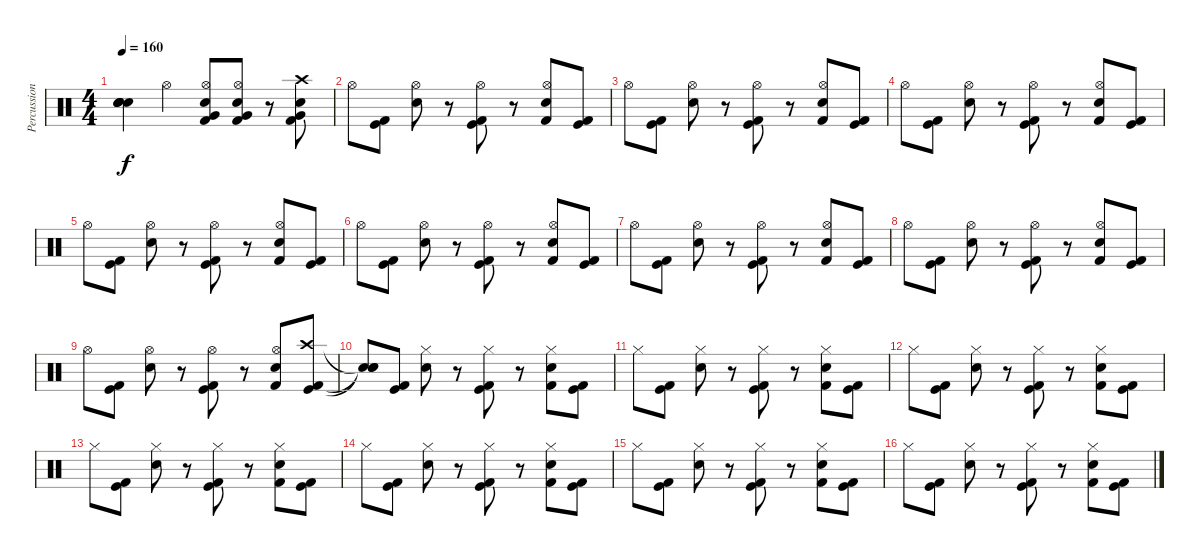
\track ("Percussions" "Percussion") {instrument percussion}
\staff {score}
\articulation defaults
\ts (4 4)
\tempo 160
\clef neutral
\ks c
("Snare (hit)"{t} "Snare (hit)"{t} "Snare (hit)"{t} "Snare (hit)"{t}).4{dy f} "Hi-Hat (open)".4 ("Hi-Hat (open)" "Snare (hit) 2" "Very Low Tom (hit)" "Kick (hit) 2").8 ("Hi-Hat (open)" "Snare (hit) 2" "Very Low Tom (hit)" "Kick (hit) 2").8 r.8 ("Crash high (hit)" "Snare (hit) 2" "Very Low Tom (hit)" "Kick (hit) 2").8 |
"Hi-Hat (open)".8 ("Kick (hit) 2" "Kick (hit)").8 ("Snare (hit) 2" "Hi-Hat (open)").8 r.8 ("Kick (hit) 2" "Kick (hit)" "Hi-Hat (open)").8 r.8 ("Kick (hit) 2" "Snare (hit) 2" "Hi-Hat (open)").8 ("Kick (hit) 2" "Kick (hit)").8 |
"Hi-Hat (open)".8 ("Kick (hit) 2" "Kick (hit)").8 ("Snare (hit) 2" "Hi-Hat (open)").8 r.8 ("Kick (hit) 2" "Kick (hit)" "Hi-Hat (open)").8 r.8 ("Kick (hit) 2" "Snare (hit) 2" "Hi-Hat (open)").8 ("Kick (hit) 2" "Kick (hit)").8 |
"Hi-Hat (open)".8 ("Kick (hit) 2" "Kick (hit)").8 ("Snare (hit) 2" "Hi-Hat (open)").8 r.8 ("Kick (hit) 2" "Kick (hit)" "Hi-Hat (open)").8 r.8 ("Kick (hit) 2" "Snare (hit) 2" "Hi-Hat (open)").8 ("Kick (hit) 2" "Kick (hit)").8 |
"Hi-Hat (open)".8 ("Kick (hit) 2" "Kick (hit)").8 ("Snare (hit) 2" "Hi-Hat (open)").8 r.8 ("Kick (hit) 2" "Kick (hit)" "Hi-Hat (open)").8 r.8 ("Kick (hit) 2" "Snare (hit) 2" "Hi-Hat (open)").8 ("Kick (hit) 2" "Kick (hit)").8 |
"Hi-Hat (open)".8 ("Kick (hit) 2" "Kick (hit)").8 ("Snare (hit) 2" "Hi-Hat (open)").8 r.8 ("Kick (hit) 2" "Kick (hit)" "Hi-Hat (open)").8 r.8 ("Kick (hit) 2" "Snare (hit) 2" "Hi-Hat (open)").8 ("Kick (hit) 2" "Kick (hit)").8 |
"Hi-Hat (open)".8 ("Kick (hit) 2" "Kick (hit)").8 ("Snare (hit) 2" "Hi-Hat (open)").8 r.8 ("Kick (hit) 2" "Kick (hit)" "Hi-Hat (open)").8 r.8 ("Kick (hit) 2" "Snare (hit) 2" "Hi-Hat (open)").8 ("Kick (hit) 2" "Kick (hit)").8 |
"Hi-Hat (open)".8 ("Kick (hit) 2" "Kick (hit)").8 ("Snare (hit) 2" "Hi-Hat (open)").8 r.8 ("Kick (hit) 2" "Kick (hit)" "Hi-Hat (open)").8 r.8 ("Kick (hit) 2" "Snare (hit) 2" "Hi-Hat (open)").8 ("Kick (hit) 2" "Kick (hit)").8 |
"Hi-Hat (open)".8 ("Kick (hit) 2" "Kick (hit)").8 ("Snare (hit) 2" "Hi-Hat (open)").8 r.8 ("Kick (hit) 2" "Kick (hit)" "Hi-Hat (open)").8 r.8 ("Kick (hit) 2" "Snare (hit) 2" "Hi-Hat (open)").8 ("Kick (hit) 2" "Kick (hit)" "Crash high (hit)").8 |
("Snare (hit)"{t} "Snare (hit)"{t} "Snare (hit)"{t}).8 ("Kick (hit) 2" "Kick (hit)").8 ("Snare (hit) 2" "Hi-Hat (closed)").8 r.8 ("Kick (hit) 2" "Kick (hit)" "Hi-Hat (closed)").8 r.8 ("Kick (hit) 2" "Snare (hit) 2" "Hi-Hat (closed)").8 ("Kick (hit) 2" "Kick (hit)").8 |
"Hi-Hat (closed)".8 ("Kick (hit) 2" "Kick (hit)").8 ("Snare (hit) 2" "Hi-Hat (closed)").8 r.8 ("Kick (hit) 2" "Kick (hit)" "Hi-Hat (closed)").8 r.8 ("Kick (hit) 2" "Snare (hit) 2" "Hi-Hat (closed)").8 ("Kick (hit) 2" "Kick (hit)").8 |
"Hi-Hat (closed)".8 ("Kick (hit) 2" "Kick (hit)").8 ("Snare (hit) 2" "Hi-Hat (closed)").8 r.8 ("Kick (hit) 2" "Kick (hit)" "Hi-Hat (closed)").8 r.8 ("Kick (hit) 2" "Snare (hit) 2" "Hi-Hat (closed)").8 ("Kick (hit) 2" "Kick (hit)").8 |
"Hi-Hat (closed)".8 ("Kick (hit) 2" "Kick (hit)").8 ("Snare (hit) 2" "Hi-Hat (closed)").8 r.8 ("Kick (hit) 2" "Kick (hit)" "Hi-Hat (closed)").8 r.8 ("Kick (hit) 2" "Snare (hit) 2" "Hi-Hat (closed)").8 ("Kick (hit) 2" "Kick (hit)").8 |
"Hi-Hat (closed)".8 ("Kick (hit) 2" "Kick (hit)").8 ("Snare (hit) 2" "Hi-Hat (closed)").8 r.8 ("Kick (hit) 2" "Kick (hit)" "Hi-Hat (closed)").8 r.8 ("Kick (hit) 2" "Snare (hit) 2" "Hi-Hat (closed)").8 ("Kick (hit) 2" "Kick (hit)").8 |
"Hi-Hat (closed)".8 ("Kick (hit) 2" "Kick (hit)").8 ("Snare (hit) 2" "Hi-Hat (closed)").8 r.8 ("Kick (hit) 2" "Kick (hit)" "Hi-Hat (closed)").8 r.8 ("Kick (hit) 2" "Snare (hit) 2" "Hi-Hat (closed)").8 ("Kick (hit) 2" "Kick (hit)").8 |
"Hi-Hat (closed)".8 ("Kick (hit) 2" "Kick (hit)").8 ("Snare (hit) 2" "Hi-Hat (closed)").8 r.8 ("Kick (hit) 2" "Kick (hit)" "Hi-Hat (closed)").8 r.8 ("Kick (hit) 2" "Snare (hit) 2" "Hi-Hat (closed)").8 ("Kick (hit) 2" "Kick (hit)").8
